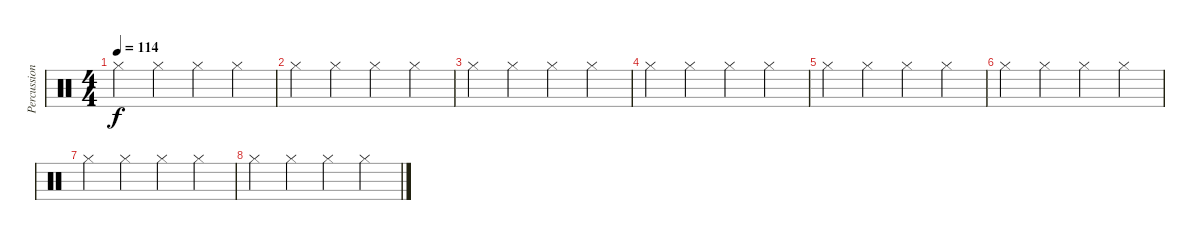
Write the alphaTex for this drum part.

\track ("Percussion" "Percussion") {instrument percussion}
\staff {score}
\articulation defaults
\ts (4 4)
\tempo 114
\clef neutral
\ks c "Hi-Hat (closed)".4{dy f} "Hi-Hat (closed)".4 "Hi-Hat (closed)".4 "Hi-Hat (closed)".4
|
"Hi-Hat (closed)".4 "Hi-Hat (closed)".4 "Hi-Hat (closed)".4 "Hi-Hat (closed)".4 |
"Hi-Hat (closed)".4 "Hi-Hat (closed)".4 "Hi-Hat (closed)".4 "Hi-Hat (closed)".4 |
"Hi-Hat (closed)".4 "Hi-Hat (closed)".4 "Hi-Hat (closed)".4 "Hi-Hat (closed)".4 |
"Hi-Hat (closed)".4 "Hi-Hat (closed)".4 "Hi-Hat (closed)".4 "Hi-Hat (closed)".4 |
"Hi-Hat (closed)".4 "Hi-Hat (closed)".4 "Hi-Hat (closed)".4 "Hi-Hat (closed)".4 |
"Hi-Hat (closed)".4 "Hi-Hat (closed)".4 "Hi-Hat (closed)".4 "Hi-Hat (closed)".4 |
"Hi-Hat (closed)".4 "Hi-Hat (closed)".4 "Hi-Hat (closed)".4 "Hi-Hat (closed)".4
